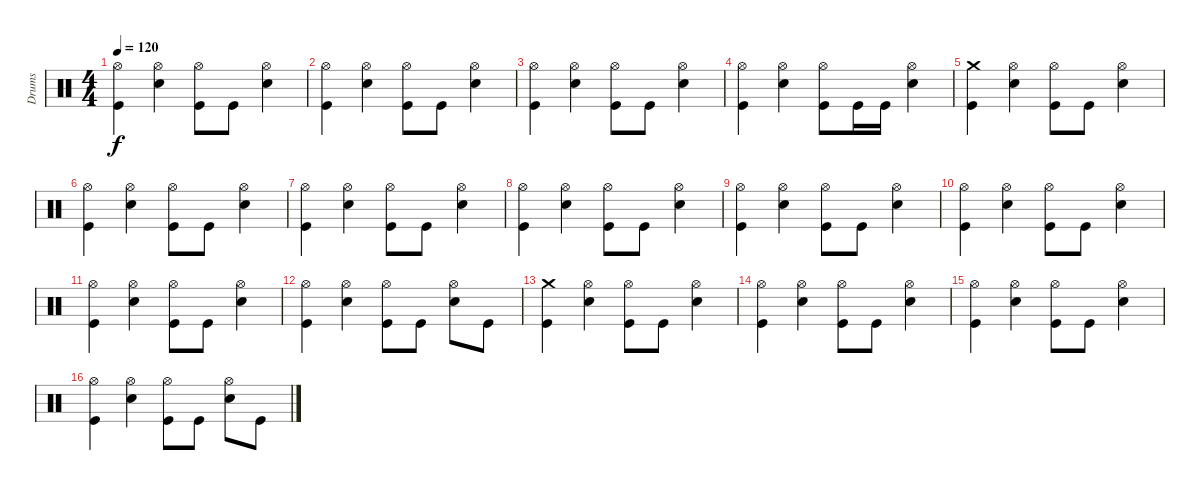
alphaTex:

\track ("Drums" "Drums") {instrument percussion}
\staff {score}
\articulation defaults
\ts (4 4)
\tempo 120
\clef neutral
\ks c
("Hi-Hat (open)" "Kick (hit)").4{dy f} ("Hi-Hat (open)" "Snare (hit) 2").4 ("Hi-Hat (open)" "Kick (hit)").8 "Kick (hit)".8 ("Hi-Hat (open)" "Snare (hit) 2").4 |
("Hi-Hat (open)" "Kick (hit)").4 ("Hi-Hat (open)" "Snare (hit) 2").4 ("Hi-Hat (open)" "Kick (hit)").8 "Kick (hit)".8 ("Hi-Hat (open)" "Snare (hit) 2").4 |
("Hi-Hat (open)" "Kick (hit)").4 ("Hi-Hat (open)" "Snare (hit) 2").4 ("Hi-Hat (open)" "Kick (hit)").8 "Kick (hit)".8 ("Hi-Hat (open)" "Snare (hit) 2").4 |
("Hi-Hat (open)" "Kick (hit)").4 ("Hi-Hat (open)" "Snare (hit) 2").4 ("Hi-Hat (open)" "Kick (hit)").8 "Kick (hit)".16 "Kick (hit)".16 ("Hi-Hat (open)" "Snare (hit) 2").4 |
("Crash medium (hit)" "Kick (hit)").4 ("Hi-Hat (open)" "Snare (hit) 2").4 ("Hi-Hat (open)" "Kick (hit)").8 "Kick (hit)".8 ("Hi-Hat (open)" "Snare (hit) 2").4 |
("Hi-Hat (open)" "Kick (hit)").4 ("Hi-Hat (open)" "Snare (hit) 2").4 ("Hi-Hat (open)" "Kick (hit)").8 "Kick (hit)".8 ("Hi-Hat (open)" "Snare (hit) 2").4 |
("Hi-Hat (open)" "Kick (hit)").4 ("Hi-Hat (open)" "Snare (hit) 2").4 ("Hi-Hat (open)" "Kick (hit)").8 "Kick (hit)".8 ("Hi-Hat (open)" "Snare (hit) 2").4 |
("Hi-Hat (open)" "Kick (hit)").4 ("Hi-Hat (open)" "Snare (hit) 2").4 ("Hi-Hat (open)" "Kick (hit)").8 "Kick (hit)".8 ("Hi-Hat (open)" "Snare (hit) 2").4 |
("Hi-Hat (open)" "Kick (hit)").4 ("Hi-Hat (open)" "Snare (hit) 2").4 ("Hi-Hat (open)" "Kick (hit)").8 "Kick (hit)".8 ("Hi-Hat (open)" "Snare (hit) 2").4 |
("Hi-Hat (open)" "Kick (hit)").4 ("Hi-Hat (open)" "Snare (hit) 2").4 ("Hi-Hat (open)" "Kick (hit)").8 "Kick (hit)".8 ("Hi-Hat (open)" "Snare (hit) 2").4 |
("Hi-Hat (open)" "Kick (hit)").4 ("Hi-Hat (open)" "Snare (hit) 2").4 ("Hi-Hat (open)" "Kick (hit)").8 "Kick (hit)".8 ("Hi-Hat (open)" "Snare (hit) 2").4 |
("Hi-Hat (open)" "Kick (hit)").4 ("Hi-Hat (open)" "Snare (hit) 2").4 ("Hi-Hat (open)" "Kick (hit)").8 "Kick (hit)".8 ("Hi-Hat (open)" "Snare (hit) 2").8 "Kick (hit)".8 |
("Crash medium (hit)" "Kick (hit)").4 ("Hi-Hat (open)" "Snare (hit) 2").4 ("Hi-Hat (open)" "Kick (hit)").8 "Kick (hit)".8 ("Hi-Hat (open)" "Snare (hit) 2").4 |
("Hi-Hat (open)" "Kick (hit)").4 ("Hi-Hat (open)" "Snare (hit) 2").4 ("Hi-Hat (open)" "Kick (hit)").8 "Kick (hit)".8 ("Hi-Hat (open)" "Snare (hit) 2").4 |
("Hi-Hat (open)" "Kick (hit)").4 ("Hi-Hat (open)" "Snare (hit) 2").4 ("Hi-Hat (open)" "Kick (hit)").8 "Kick (hit)".8 ("Hi-Hat (open)" "Snare (hit) 2").4 |
("Hi-Hat (open)" "Kick (hit)").4 ("Hi-Hat (open)" "Snare (hit) 2").4 ("Hi-Hat (open)" "Kick (hit)").8 "Kick (hit)".8 ("Hi-Hat (open)" "Snare (hit) 2").8 "Kick (hit)".8
